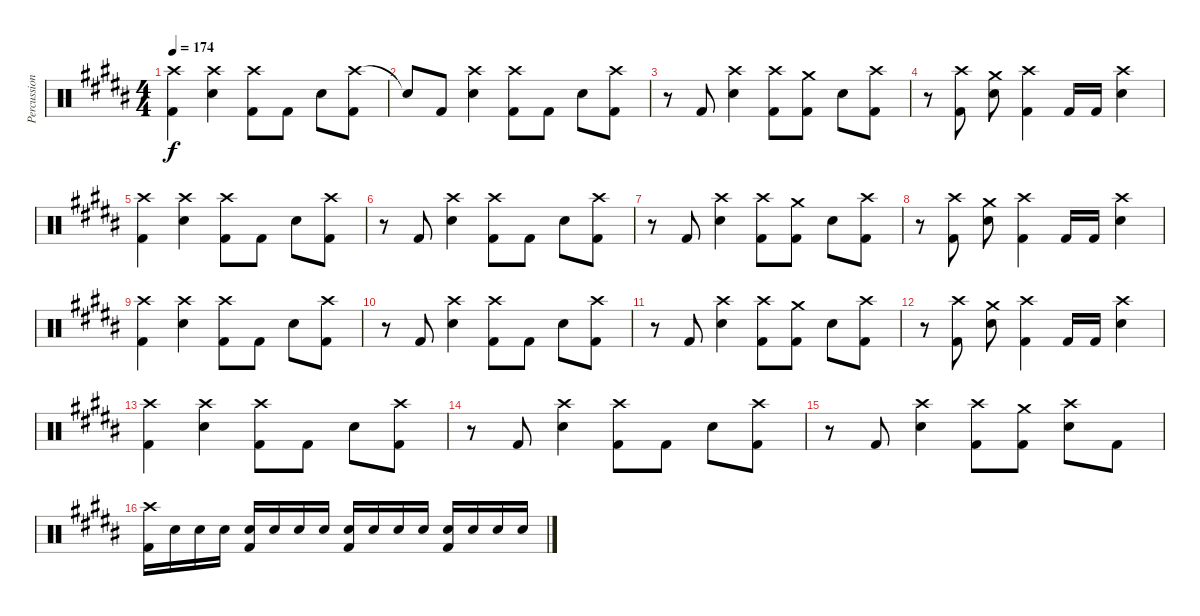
\track ("Percussion" "Percussion") {instrument percussion}
\staff {score}
\articulation defaults
\ts (4 4)
\tempo 174
\clef neutral
\ks b
("Crash high (hit)" "Kick (hit) 2").4{dy f} ("Crash high (hit)" "Electric Snare (hit)").4 ("Crash high (hit)" "Kick (hit) 2").8 "Kick (hit) 2".8 "Electric Snare (hit)".8 ("Crash high (hit)" "Kick (hit) 2").8 |
"Snare (hit)"{t}.8 "Kick (hit) 2".8 ("Crash high (hit)" "Electric Snare (hit)").4 ("Crash high (hit)" "Kick (hit) 2").8 "Kick (hit) 2".8 "Electric Snare (hit)".8 ("Crash high (hit)" "Kick (hit) 2").8 |
r.8 "Kick (hit) 2".8 ("Crash high (hit)" "Electric Snare (hit)").4 ("Crash high (hit)" "Kick (hit) 2").8 ("Crash medium (hit)" "Kick (hit) 2").8 "Electric Snare (hit)".8 ("Crash high (hit)" "Kick (hit) 2").8 |
r.8 ("Crash high (hit)" "Kick (hit) 2").8 ("Crash medium (hit)" "Electric Snare (hit)").8 ("Crash high (hit)" "Kick (hit) 2").4 "Kick (hit) 2".16 "Kick (hit) 2".16 ("Crash high (hit)" "Electric Snare (hit)").4 |
("Crash high (hit)" "Kick (hit) 2").4 ("Crash high (hit)" "Electric Snare (hit)").4 ("Crash high (hit)" "Kick (hit) 2").8 "Kick (hit) 2".8 "Electric Snare (hit)".8 ("Crash high (hit)" "Kick (hit) 2").8 |
r.8 "Kick (hit) 2".8 ("Crash high (hit)" "Electric Snare (hit)").4 ("Crash high (hit)" "Kick (hit) 2").8 "Kick (hit) 2".8 "Electric Snare (hit)".8 ("Crash high (hit)" "Kick (hit) 2").8 |
r.8 "Kick (hit) 2".8 ("Crash high (hit)" "Electric Snare (hit)").4 ("Crash high (hit)" "Kick (hit) 2").8 ("Crash medium (hit)" "Kick (hit) 2").8 "Electric Snare (hit)".8 ("Crash high (hit)" "Kick (hit) 2").8 |
r.8 ("Crash high (hit)" "Kick (hit) 2").8 ("Crash medium (hit)" "Electric Snare (hit)").8 ("Crash high (hit)" "Kick (hit) 2").4 "Kick (hit) 2".16 "Kick (hit) 2".16 ("Crash high (hit)" "Electric Snare (hit)").4 |
("Crash high (hit)" "Kick (hit) 2").4 ("Crash high (hit)" "Electric Snare (hit)").4 ("Crash high (hit)" "Kick (hit) 2").8 "Kick (hit) 2".8 "Electric Snare (hit)".8 ("Crash high (hit)" "Kick (hit) 2").8 |
r.8 "Kick (hit) 2".8 ("Crash high (hit)" "Electric Snare (hit)").4 ("Crash high (hit)" "Kick (hit) 2").8 "Kick (hit) 2".8 "Electric Snare (hit)".8 ("Crash high (hit)" "Kick (hit) 2").8 |
r.8 "Kick (hit) 2".8 ("Crash high (hit)" "Electric Snare (hit)").4 ("Crash high (hit)" "Kick (hit) 2").8 ("Crash medium (hit)" "Kick (hit) 2").8 "Electric Snare (hit)".8 ("Crash high (hit)" "Kick (hit) 2").8 |
r.8 ("Crash high (hit)" "Kick (hit) 2").8 ("Crash medium (hit)" "Electric Snare (hit)").8 ("Crash high (hit)" "Kick (hit) 2").4 "Kick (hit) 2".16 "Kick (hit) 2".16 ("Crash high (hit)" "Electric Snare (hit)").4 |
("Crash high (hit)" "Kick (hit) 2").4 ("Crash high (hit)" "Electric Snare (hit)").4 ("Crash high (hit)" "Kick (hit) 2").8 "Kick (hit) 2".8 "Electric Snare (hit)".8 ("Crash high (hit)" "Kick (hit) 2").8 |
r.8 "Kick (hit) 2".8 ("Crash high (hit)" "Electric Snare (hit)").4 ("Crash high (hit)" "Kick (hit) 2").8 "Kick (hit) 2".8 "Electric Snare (hit)".8 ("Crash high (hit)" "Kick (hit) 2").8 |
r.8 "Kick (hit) 2".8 ("Crash high (hit)" "Electric Snare (hit)").4 ("Crash high (hit)" "Kick (hit) 2").8 ("Crash medium (hit)" "Kick (hit) 2").8 ("Crash high (hit)" "Electric Snare (hit)").8 "Kick (hit) 2".8 |
("Crash high (hit)" "Kick (hit) 2").16 "Electric Snare (hit)".16 "Electric Snare (hit)".16 "Electric Snare (hit)".16 ("Electric Snare (hit)" "Kick (hit) 2").16 "Electric Snare (hit)".16 "Electric Snare (hit)".16 "Electric Snare (hit)".16 ("Electric Snare (hit)" "Kick (hit) 2").16 "Electric Snare (hit)".16 "Electric Snare (hit)".16 "Electric Snare (hit)".16 ("Electric Snare (hit)" "Kick (hit) 2").16 "Electric Snare (hit)".16 "Electric Snare (hit)".16 "Electric Snare (hit)".16
